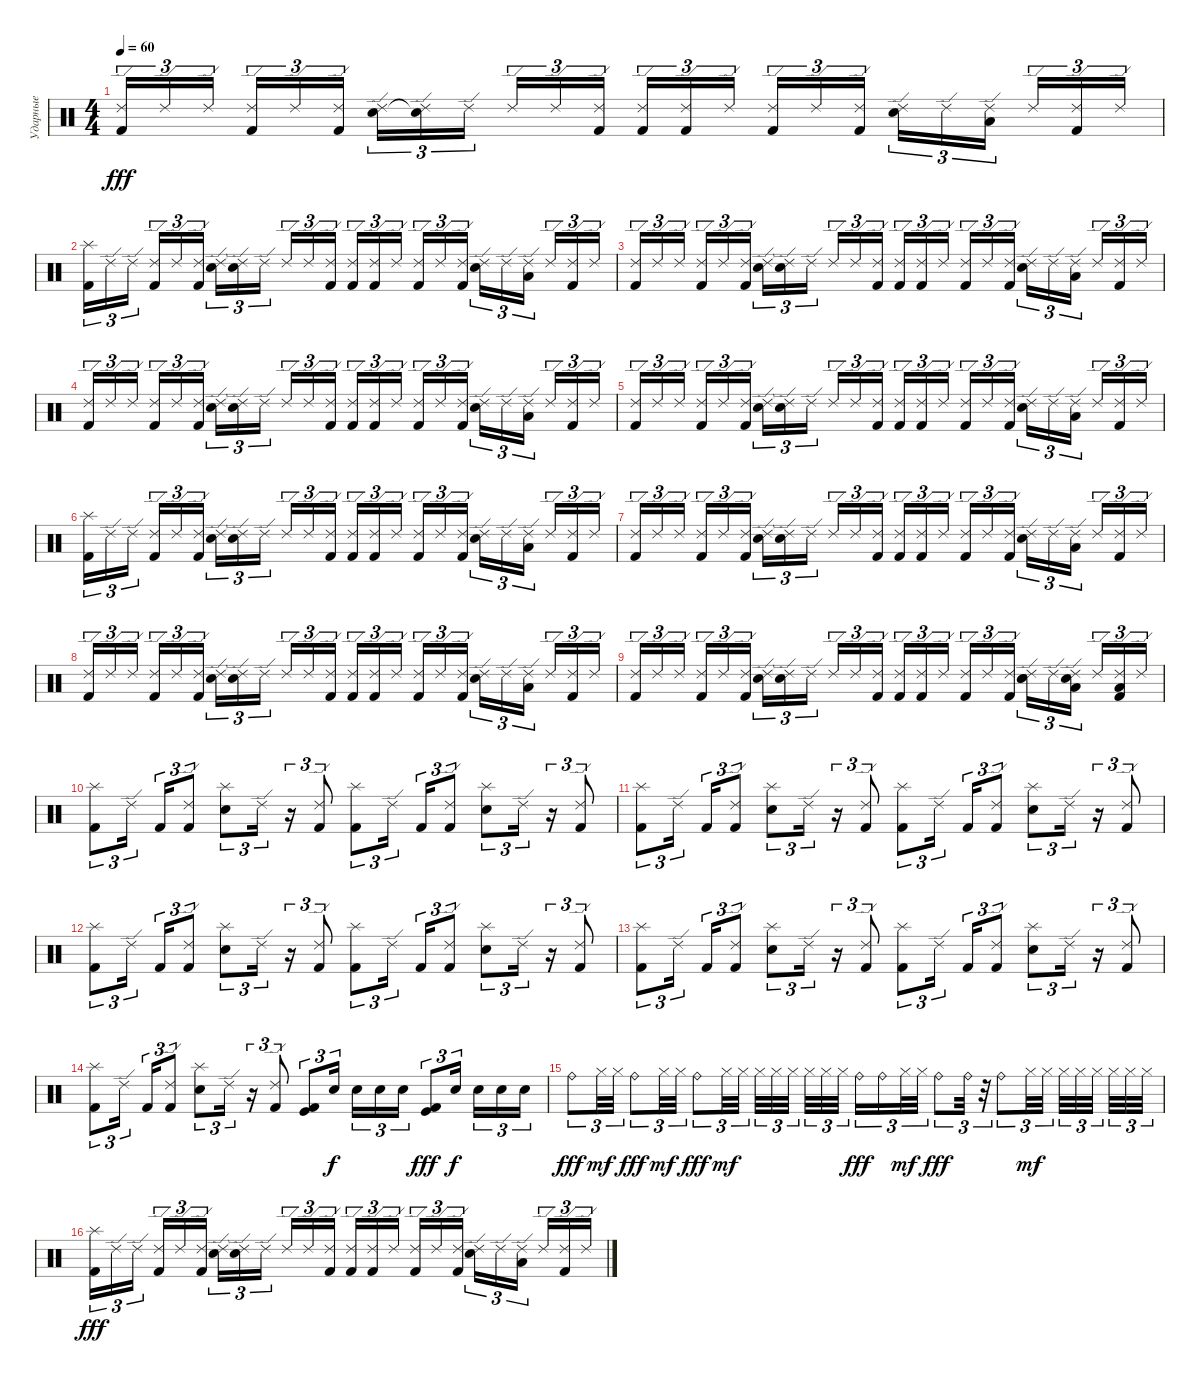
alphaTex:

\track ("Ударные" "Ударные") {instrument percussion}
\staff {score}
\articulation defaults
\ts (4 4)
\tempo 60
\clef neutral
\ks c
("Kick (hit) 2" "Ride (edge) 2").16{tu (3 2) dy fff} "Ride (edge) 2".16{tu (3 2)} "Ride (edge) 2".16{tu (3 2) beam splitsecondary} ("Kick (hit) 2" "Ride (edge) 2").16{tu (3 2)} "Ride (edge) 2".16{tu (3 2)} ("Kick (hit) 2" "Ride (edge) 2").16{tu (3 2)} ("Electric Snare (hit)" "Ride (edge) 2").16{tu (3 2)} ("Snare (hit)"{t} "Ride (edge) 2").16{tu (3 2)} "Ride (edge) 2".16{tu (3 2) beam splitsecondary} "Ride (edge) 2".16{tu (3 2)} "Ride (edge) 2".16{tu (3 2)} ("Kick (hit) 2" "Ride (edge) 2").16{tu (3 2)} ("Kick (hit) 2" "Ride (edge) 2").16{tu (3 2)} ("Kick (hit) 2" "Ride (edge) 2").16{tu (3 2)} "Ride (edge) 2".16{tu (3 2) beam splitsecondary} ("Kick (hit) 2" "Ride (edge) 2").16{tu (3 2)} "Ride (edge) 2".16{tu (3 2)} ("Kick (hit) 2" "Ride (edge) 2").16{tu (3 2)} ("Electric Snare (hit)" "Ride (edge) 2").16{tu (3 2)} "Ride (edge) 2".16{tu (3 2)} ("Low Floor Tom (hit)" "Ride (edge) 2").16{tu (3 2) beam splitsecondary} "Ride (edge) 2".16{tu (3 2)} ("Kick (hit) 2" "Ride (edge) 2").16{tu (3 2)} "Ride (edge) 2".16{tu (3 2)} |
("Kick (hit) 2" "Splash (hit)").16{tu (3 2)} "Ride (edge) 2".16{tu (3 2)} "Ride (edge) 2".16{tu (3 2) beam splitsecondary} ("Kick (hit) 2" "Ride (edge) 2").16{tu (3 2)} "Ride (edge) 2".16{tu (3 2)} ("Kick (hit) 2" "Ride (edge) 2").16{tu (3 2)} ("Electric Snare (hit)" "Ride (edge) 2").16{tu (3 2)} ("Snare (hit)"{t} "Ride (edge) 2").16{tu (3 2)} "Ride (edge) 2".16{tu (3 2) beam splitsecondary} "Ride (edge) 2".16{tu (3 2)} "Ride (edge) 2".16{tu (3 2)} ("Kick (hit) 2" "Ride (edge) 2").16{tu (3 2)} ("Kick (hit) 2" "Ride (edge) 2").16{tu (3 2)} ("Kick (hit) 2" "Ride (edge) 2").16{tu (3 2)} "Ride (edge) 2".16{tu (3 2) beam splitsecondary} ("Kick (hit) 2" "Ride (edge) 2").16{tu (3 2)} "Ride (edge) 2".16{tu (3 2)} ("Kick (hit) 2" "Ride (edge) 2").16{tu (3 2)} ("Electric Snare (hit)" "Ride (edge) 2").16{tu (3 2)} "Ride (edge) 2".16{tu (3 2)} ("Low Floor Tom (hit)" "Ride (edge) 2").16{tu (3 2) beam splitsecondary} "Ride (edge) 2".16{tu (3 2)} ("Kick (hit) 2" "Ride (edge) 2").16{tu (3 2)} "Ride (edge) 2".16{tu (3 2)} |
("Kick (hit) 2" "Ride (edge) 2").16{tu (3 2)} "Ride (edge) 2".16{tu (3 2)} "Ride (edge) 2".16{tu (3 2) beam splitsecondary} ("Kick (hit) 2" "Ride (edge) 2").16{tu (3 2)} "Ride (edge) 2".16{tu (3 2)} ("Kick (hit) 2" "Ride (edge) 2").16{tu (3 2)} ("Electric Snare (hit)" "Ride (edge) 2").16{tu (3 2)} ("Snare (hit)"{t} "Ride (edge) 2").16{tu (3 2)} "Ride (edge) 2".16{tu (3 2) beam splitsecondary} "Ride (edge) 2".16{tu (3 2)} "Ride (edge) 2".16{tu (3 2)} ("Kick (hit) 2" "Ride (edge) 2").16{tu (3 2)} ("Kick (hit) 2" "Ride (edge) 2").16{tu (3 2)} ("Kick (hit) 2" "Ride (edge) 2").16{tu (3 2)} "Ride (edge) 2".16{tu (3 2) beam splitsecondary} ("Kick (hit) 2" "Ride (edge) 2").16{tu (3 2)} "Ride (edge) 2".16{tu (3 2)} ("Kick (hit) 2" "Ride (edge) 2").16{tu (3 2)} ("Electric Snare (hit)" "Ride (edge) 2").16{tu (3 2)} "Ride (edge) 2".16{tu (3 2)} ("Low Floor Tom (hit)" "Ride (edge) 2").16{tu (3 2) beam splitsecondary} "Ride (edge) 2".16{tu (3 2)} ("Kick (hit) 2" "Ride (edge) 2").16{tu (3 2)} "Ride (edge) 2".16{tu (3 2)} |
("Kick (hit) 2" "Ride (edge) 2").16{tu (3 2)} "Ride (edge) 2".16{tu (3 2)} "Ride (edge) 2".16{tu (3 2) beam splitsecondary} ("Kick (hit) 2" "Ride (edge) 2").16{tu (3 2)} "Ride (edge) 2".16{tu (3 2)} ("Kick (hit) 2" "Ride (edge) 2").16{tu (3 2)} ("Electric Snare (hit)" "Ride (edge) 2").16{tu (3 2)} ("Snare (hit)"{t} "Ride (edge) 2").16{tu (3 2)} "Ride (edge) 2".16{tu (3 2) beam splitsecondary} "Ride (edge) 2".16{tu (3 2)} "Ride (edge) 2".16{tu (3 2)} ("Kick (hit) 2" "Ride (edge) 2").16{tu (3 2)} ("Kick (hit) 2" "Ride (edge) 2").16{tu (3 2)} ("Kick (hit) 2" "Ride (edge) 2").16{tu (3 2)} "Ride (edge) 2".16{tu (3 2) beam splitsecondary} ("Kick (hit) 2" "Ride (edge) 2").16{tu (3 2)} "Ride (edge) 2".16{tu (3 2)} ("Kick (hit) 2" "Ride (edge) 2").16{tu (3 2)} ("Electric Snare (hit)" "Ride (edge) 2").16{tu (3 2)} "Ride (edge) 2".16{tu (3 2)} ("Low Floor Tom (hit)" "Ride (edge) 2").16{tu (3 2) beam splitsecondary} "Ride (edge) 2".16{tu (3 2)} ("Kick (hit) 2" "Ride (edge) 2").16{tu (3 2)} "Ride (edge) 2".16{tu (3 2)} |
("Kick (hit) 2" "Ride (edge) 2").16{tu (3 2)} "Ride (edge) 2".16{tu (3 2)} "Ride (edge) 2".16{tu (3 2) beam splitsecondary} ("Kick (hit) 2" "Ride (edge) 2").16{tu (3 2)} "Ride (edge) 2".16{tu (3 2)} ("Kick (hit) 2" "Ride (edge) 2").16{tu (3 2)} ("Electric Snare (hit)" "Ride (edge) 2").16{tu (3 2)} ("Snare (hit)"{t} "Ride (edge) 2").16{tu (3 2)} "Ride (edge) 2".16{tu (3 2) beam splitsecondary} "Ride (edge) 2".16{tu (3 2)} "Ride (edge) 2".16{tu (3 2)} ("Kick (hit) 2" "Ride (edge) 2").16{tu (3 2)} ("Kick (hit) 2" "Ride (edge) 2").16{tu (3 2)} ("Kick (hit) 2" "Ride (edge) 2").16{tu (3 2)} "Ride (edge) 2".16{tu (3 2) beam splitsecondary} ("Kick (hit) 2" "Ride (edge) 2").16{tu (3 2)} "Ride (edge) 2".16{tu (3 2)} ("Kick (hit) 2" "Ride (edge) 2").16{tu (3 2)} ("Electric Snare (hit)" "Ride (edge) 2").16{tu (3 2)} "Ride (edge) 2".16{tu (3 2)} ("Low Floor Tom (hit)" "Ride (edge) 2").16{tu (3 2) beam splitsecondary} "Ride (edge) 2".16{tu (3 2)} ("Kick (hit) 2" "Ride (edge) 2").16{tu (3 2)} "Ride (edge) 2".16{tu (3 2)} |
("Kick (hit) 2" "Splash (hit)").16{tu (3 2)} "Ride (edge) 2".16{tu (3 2)} "Ride (edge) 2".16{tu (3 2) beam splitsecondary} ("Kick (hit) 2" "Ride (edge) 2").16{tu (3 2)} "Ride (edge) 2".16{tu (3 2)} ("Kick (hit) 2" "Ride (edge) 2").16{tu (3 2)} ("Electric Snare (hit)" "Ride (edge) 2").16{tu (3 2)} ("Snare (hit)"{t} "Ride (edge) 2").16{tu (3 2)} "Ride (edge) 2".16{tu (3 2) beam splitsecondary} "Ride (edge) 2".16{tu (3 2)} "Ride (edge) 2".16{tu (3 2)} ("Kick (hit) 2" "Ride (edge) 2").16{tu (3 2)} ("Kick (hit) 2" "Ride (edge) 2").16{tu (3 2)} ("Kick (hit) 2" "Ride (edge) 2").16{tu (3 2)} "Ride (edge) 2".16{tu (3 2) beam splitsecondary} ("Kick (hit) 2" "Ride (edge) 2").16{tu (3 2)} "Ride (edge) 2".16{tu (3 2)} ("Kick (hit) 2" "Ride (edge) 2").16{tu (3 2)} ("Electric Snare (hit)" "Ride (edge) 2").16{tu (3 2)} "Ride (edge) 2".16{tu (3 2)} ("Low Floor Tom (hit)" "Ride (edge) 2").16{tu (3 2) beam splitsecondary} "Ride (edge) 2".16{tu (3 2)} ("Kick (hit) 2" "Ride (edge) 2").16{tu (3 2)} "Ride (edge) 2".16{tu (3 2)} |
("Kick (hit) 2" "Ride (edge) 2").16{tu (3 2)} "Ride (edge) 2".16{tu (3 2)} "Ride (edge) 2".16{tu (3 2) beam splitsecondary} ("Kick (hit) 2" "Ride (edge) 2").16{tu (3 2)} "Ride (edge) 2".16{tu (3 2)} ("Kick (hit) 2" "Ride (edge) 2").16{tu (3 2)} ("Electric Snare (hit)" "Ride (edge) 2").16{tu (3 2)} ("Snare (hit)"{t} "Ride (edge) 2").16{tu (3 2)} "Ride (edge) 2".16{tu (3 2) beam splitsecondary} "Ride (edge) 2".16{tu (3 2)} "Ride (edge) 2".16{tu (3 2)} ("Kick (hit) 2" "Ride (edge) 2").16{tu (3 2)} ("Kick (hit) 2" "Ride (edge) 2").16{tu (3 2)} ("Kick (hit) 2" "Ride (edge) 2").16{tu (3 2)} "Ride (edge) 2".16{tu (3 2) beam splitsecondary} ("Kick (hit) 2" "Ride (edge) 2").16{tu (3 2)} "Ride (edge) 2".16{tu (3 2)} ("Kick (hit) 2" "Ride (edge) 2").16{tu (3 2)} ("Electric Snare (hit)" "Ride (edge) 2").16{tu (3 2)} "Ride (edge) 2".16{tu (3 2)} ("Low Floor Tom (hit)" "Ride (edge) 2").16{tu (3 2) beam splitsecondary} "Ride (edge) 2".16{tu (3 2)} ("Kick (hit) 2" "Ride (edge) 2").16{tu (3 2)} "Ride (edge) 2".16{tu (3 2)} |
("Kick (hit) 2" "Ride (edge) 2").16{tu (3 2)} "Ride (edge) 2".16{tu (3 2)} "Ride (edge) 2".16{tu (3 2) beam splitsecondary} ("Kick (hit) 2" "Ride (edge) 2").16{tu (3 2)} "Ride (edge) 2".16{tu (3 2)} ("Kick (hit) 2" "Ride (edge) 2").16{tu (3 2)} ("Electric Snare (hit)" "Ride (edge) 2").16{tu (3 2)} ("Snare (hit)"{t} "Ride (edge) 2").16{tu (3 2)} "Ride (edge) 2".16{tu (3 2) beam splitsecondary} "Ride (edge) 2".16{tu (3 2)} "Ride (edge) 2".16{tu (3 2)} ("Kick (hit) 2" "Ride (edge) 2").16{tu (3 2)} ("Kick (hit) 2" "Ride (edge) 2").16{tu (3 2)} ("Kick (hit) 2" "Ride (edge) 2").16{tu (3 2)} "Ride (edge) 2".16{tu (3 2) beam splitsecondary} ("Kick (hit) 2" "Ride (edge) 2").16{tu (3 2)} "Ride (edge) 2".16{tu (3 2)} ("Kick (hit) 2" "Ride (edge) 2").16{tu (3 2)} ("Electric Snare (hit)" "Ride (edge) 2").16{tu (3 2)} "Ride (edge) 2".16{tu (3 2)} ("Low Floor Tom (hit)" "Ride (edge) 2").16{tu (3 2) beam splitsecondary} "Ride (edge) 2".16{tu (3 2)} ("Kick (hit) 2" "Ride (edge) 2").16{tu (3 2)} "Ride (edge) 2".16{tu (3 2)} |
("Kick (hit) 2" "Ride (edge) 2").16{tu (3 2)} "Ride (edge) 2".16{tu (3 2)} "Ride (edge) 2".16{tu (3 2) beam splitsecondary} ("Kick (hit) 2" "Ride (edge) 2").16{tu (3 2)} "Ride (edge) 2".16{tu (3 2)} ("Kick (hit) 2" "Ride (edge) 2").16{tu (3 2)} ("Electric Snare (hit)" "Ride (edge) 2").16{tu (3 2)} ("Snare (hit)"{t} "Ride (edge) 2").16{tu (3 2)} "Ride (edge) 2".16{tu (3 2) beam splitsecondary} "Ride (edge) 2".16{tu (3 2)} "Ride (edge) 2".16{tu (3 2)} ("Kick (hit) 2" "Ride (edge) 2").16{tu (3 2)} ("Kick (hit) 2" "Ride (edge) 2").16{tu (3 2)} ("Kick (hit) 2" "Ride (edge) 2").16{tu (3 2)} "Ride (edge) 2".16{tu (3 2) beam splitsecondary} ("Kick (hit) 2" "Ride (edge) 2").16{tu (3 2)} "Ride (edge) 2".16{tu (3 2)} ("Kick (hit) 2" "Ride (edge) 2").16{tu (3 2)} ("Electric Snare (hit)" "Snare (hit) 2" "Ride (edge) 2").16{tu (3 2)} "Ride (edge) 2".16{tu (3 2)} ("Electric Snare (hit)" "Low Floor Tom (hit)" "Ride (edge) 2").16{tu (3 2) beam splitsecondary} "Ride (edge) 2".16{tu (3 2)} ("Kick (hit) 2" "Low Floor Tom (hit)" "Ride (edge) 2").16{tu (3 2)} "Ride (edge) 2".16{tu (3 2)} |
("Kick (hit) 2" "Splash (hit)").8{tu (3 2)} "Ride (edge) 2".16{tu (3 2) beam splitsecondary} "Kick (hit) 2".16{tu (3 2)} ("Kick (hit) 2" "Ride (edge) 2").8{tu (3 2)} ("Electric Snare (hit)" "Splash (hit)").8{tu (3 2)} "Ride (edge) 2".16{tu (3 2)} r.16{tu (3 2)} ("Kick (hit) 2" "Ride (edge) 2").8{tu (3 2)} ("Kick (hit) 2" "Splash (hit)").8{tu (3 2)} "Ride (edge) 2".16{tu (3 2) beam splitsecondary} "Kick (hit) 2".16{tu (3 2)} ("Kick (hit) 2" "Ride (edge) 2").8{tu (3 2)} ("Electric Snare (hit)" "Splash (hit)").8{tu (3 2)} "Ride (edge) 2".16{tu (3 2)} r.16{tu (3 2)} ("Kick (hit) 2" "Ride (edge) 2").8{tu (3 2)} |
("Kick (hit) 2" "Splash (hit)").8{tu (3 2)} "Ride (edge) 2".16{tu (3 2) beam splitsecondary} "Kick (hit) 2".16{tu (3 2)} ("Kick (hit) 2" "Ride (edge) 2").8{tu (3 2)} ("Electric Snare (hit)" "Splash (hit)").8{tu (3 2)} "Ride (edge) 2".16{tu (3 2)} r.16{tu (3 2)} ("Kick (hit) 2" "Ride (edge) 2").8{tu (3 2)} ("Kick (hit) 2" "Splash (hit)").8{tu (3 2)} "Ride (edge) 2".16{tu (3 2) beam splitsecondary} "Kick (hit) 2".16{tu (3 2)} ("Kick (hit) 2" "Ride (edge) 2").8{tu (3 2)} ("Electric Snare (hit)" "Splash (hit)").8{tu (3 2)} "Ride (edge) 2".16{tu (3 2)} r.16{tu (3 2)} ("Kick (hit) 2" "Ride (edge) 2").8{tu (3 2)} |
("Kick (hit) 2" "Splash (hit)").8{tu (3 2)} "Ride (edge) 2".16{tu (3 2) beam splitsecondary} "Kick (hit) 2".16{tu (3 2)} ("Kick (hit) 2" "Ride (edge) 2").8{tu (3 2)} ("Electric Snare (hit)" "Splash (hit)").8{tu (3 2)} "Ride (edge) 2".16{tu (3 2)} r.16{tu (3 2)} ("Kick (hit) 2" "Ride (edge) 2").8{tu (3 2)} ("Kick (hit) 2" "Splash (hit)").8{tu (3 2)} "Ride (edge) 2".16{tu (3 2) beam splitsecondary} "Kick (hit) 2".16{tu (3 2)} ("Kick (hit) 2" "Ride (edge) 2").8{tu (3 2)} ("Electric Snare (hit)" "Splash (hit)").8{tu (3 2)} "Ride (edge) 2".16{tu (3 2)} r.16{tu (3 2)} ("Kick (hit) 2" "Ride (edge) 2").8{tu (3 2)} |
("Kick (hit) 2" "Splash (hit)").8{tu (3 2)} "Ride (edge) 2".16{tu (3 2) beam splitsecondary} "Kick (hit) 2".16{tu (3 2)} ("Kick (hit) 2" "Ride (edge) 2").8{tu (3 2)} ("Electric Snare (hit)" "Splash (hit)").8{tu (3 2)} "Ride (edge) 2".16{tu (3 2)} r.16{tu (3 2)} ("Kick (hit) 2" "Ride (edge) 2").8{tu (3 2)} ("Kick (hit) 2" "Splash (hit)").8{tu (3 2)} "Ride (edge) 2".16{tu (3 2) beam splitsecondary} "Kick (hit) 2".16{tu (3 2)} ("Kick (hit) 2" "Ride (edge) 2").8{tu (3 2)} ("Electric Snare (hit)" "Splash (hit)").8{tu (3 2)} "Ride (edge) 2".16{tu (3 2)} r.16{tu (3 2)} ("Kick (hit) 2" "Ride (edge) 2").8{tu (3 2)} |
("Kick (hit) 2" "Splash (hit)").8{tu (3 2)} "Ride (edge) 2".16{tu (3 2) beam splitsecondary} "Kick (hit) 2".16{tu (3 2)} ("Kick (hit) 2" "Ride (edge) 2").8{tu (3 2)} ("Electric Snare (hit)" "Splash (hit)").8{tu (3 2)} "Ride (edge) 2".16{tu (3 2)} r.16{tu (3 2)} ("Kick (hit) 2" "Ride (edge) 2").8{tu (3 2)} ("Kick (hit) 2" "Kick (hit)").8{tu (3 2)} "Electric Snare (hit)".16{tu (3 2) dy f beam splitsecondary} "Electric Snare (hit)".16{tu (3 2)} "Electric Snare (hit)".16{tu (3 2)} "Electric Snare (hit)".16{tu (3 2)} ("Kick (hit) 2" "Kick (hit)").8{tu (3 2) dy fff} "Electric Snare (hit)".16{tu (3 2) dy f beam splitsecondary} "Electric Snare (hit)".16{tu (3 2)} "Electric Snare (hit)".16{tu (3 2)} "Electric Snare (hit)".16{tu (3 2)} |
"Ride (bell)".8{tu (3 2) dy fff} "Hi-Hat (closed)".32{tu (3 2) dy mf} "Hi-Hat (closed)".32{tu (3 2)} "Ride (bell)".8{tu (3 2) dy fff} "Hi-Hat (closed)".32{tu (3 2) dy mf} "Hi-Hat (closed)".32{tu (3 2)} "Ride (bell)".8{tu (3 2) dy fff} "Hi-Hat (closed)".32{tu (3 2) dy mf} "Hi-Hat (closed)".32{tu (3 2) beam splitsecondary} "Hi-Hat (closed)".32{tu (3 2)} "Hi-Hat (closed)".32{tu (3 2)} "Hi-Hat (closed)".32{tu (3 2) beam splitsecondary} "Hi-Hat (closed)".32{tu (3 2)} "Hi-Hat (closed)".32{tu (3 2)} "Hi-Hat (closed)".32{tu (3 2)} "Ride (bell)".16{tu (3 2) dy fff} "Ride (bell)".16{tu (3 2)} "Hi-Hat (closed)".32{tu (3 2) dy mf} "Hi-Hat (closed)".32{tu (3 2)} "Ride (bell)".8{tu (3 2) dy fff} "Ride (bell)".32{tu (3 2)} r.32{tu (3 2)} "Ride (bell)".8{tu (3 2)} "Hi-Hat (closed)".32{tu (3 2) dy mf} "Hi-Hat (closed)".32{tu (3 2) beam splitsecondary} "Hi-Hat (closed)".32{tu (3 2)} "Hi-Hat (closed)".32{tu (3 2)} "Hi-Hat (closed)".32{tu (3 2) beam splitsecondary} "Hi-Hat (closed)".32{tu (3 2)} "Hi-Hat (closed)".32{tu (3 2)} "Hi-Hat (closed)".32{tu (3 2)} |
("Kick (hit) 2" "Splash (hit)").16{tu (3 2) dy fff} "Ride (edge) 2".16{tu (3 2)} "Ride (edge) 2".16{tu (3 2) beam splitsecondary} ("Kick (hit) 2" "Ride (edge) 2").16{tu (3 2)} "Ride (edge) 2".16{tu (3 2)} ("Kick (hit) 2" "Ride (edge) 2").16{tu (3 2)} ("Electric Snare (hit)" "Ride (edge) 2").16{tu (3 2)} ("Snare (hit)"{t} "Ride (edge) 2").16{tu (3 2)} "Ride (edge) 2".16{tu (3 2) beam splitsecondary} "Ride (edge) 2".16{tu (3 2)} "Ride (edge) 2".16{tu (3 2)} ("Kick (hit) 2" "Ride (edge) 2").16{tu (3 2)} ("Kick (hit) 2" "Ride (edge) 2").16{tu (3 2)} ("Kick (hit) 2" "Ride (edge) 2").16{tu (3 2)} "Ride (edge) 2".16{tu (3 2) beam splitsecondary} ("Kick (hit) 2" "Ride (edge) 2").16{tu (3 2)} "Ride (edge) 2".16{tu (3 2)} ("Kick (hit) 2" "Ride (edge) 2").16{tu (3 2)} ("Electric Snare (hit)" "Ride (edge) 2").16{tu (3 2)} "Ride (edge) 2".16{tu (3 2)} ("Low Floor Tom (hit)" "Ride (edge) 2").16{tu (3 2) beam splitsecondary} "Ride (edge) 2".16{tu (3 2)} ("Kick (hit) 2" "Ride (edge) 2").16{tu (3 2)} "Ride (edge) 2".16{tu (3 2)}
